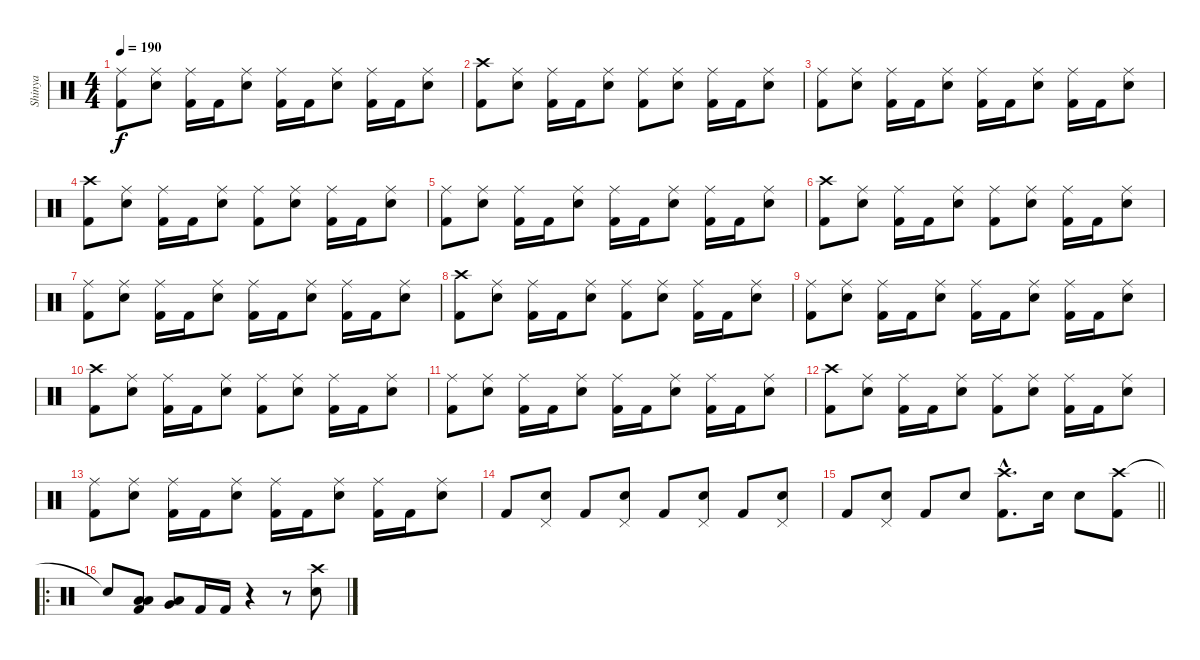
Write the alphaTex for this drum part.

\track ("Shinya" "Shinya") {instrument percussion}
\staff {score}
\articulation defaults
\ts (4 4)
\tempo 190
\clef neutral
\ks c
("Ride (middle)" "Kick (hit) 2").8{dy f} ("Ride (middle)" "Electric Snare (hit)").8 ("Ride (middle)" "Kick (hit) 2").16 "Kick (hit) 2".16 ("Ride (middle)" "Electric Snare (hit)").8 ("Ride (middle)" "Kick (hit) 2").16 "Kick (hit) 2".16 ("Ride (middle)" "Electric Snare (hit)").8 ("Ride (middle)" "Kick (hit) 2").16 "Kick (hit) 2".16 ("Ride (middle)" "Electric Snare (hit)").8 |
("Crash high (hit)" "Kick (hit) 2").8 ("Ride (middle)" "Electric Snare (hit)").8 ("Ride (middle)" "Kick (hit) 2").16 "Kick (hit) 2".16 ("Ride (middle)" "Electric Snare (hit)").8 ("Ride (middle)" "Kick (hit) 2").8 ("Ride (middle)" "Electric Snare (hit)").8 ("Ride (middle)" "Kick (hit) 2").16 "Kick (hit) 2".16 ("Ride (middle)" "Electric Snare (hit)").8 |
("Ride (middle)" "Kick (hit) 2").8 ("Ride (middle)" "Electric Snare (hit)").8 ("Ride (middle)" "Kick (hit) 2").16 "Kick (hit) 2".16 ("Ride (middle)" "Electric Snare (hit)").8 ("Ride (middle)" "Kick (hit) 2").16 "Kick (hit) 2".16 ("Ride (middle)" "Electric Snare (hit)").8 ("Ride (middle)" "Kick (hit) 2").16 "Kick (hit) 2".16 ("Ride (middle)" "Electric Snare (hit)").8 |
("Crash high (hit)" "Kick (hit) 2").8 ("Ride (middle)" "Electric Snare (hit)").8 ("Ride (middle)" "Kick (hit) 2").16 "Kick (hit) 2".16 ("Ride (middle)" "Electric Snare (hit)").8 ("Ride (middle)" "Kick (hit) 2").8 ("Ride (middle)" "Electric Snare (hit)").8 ("Ride (middle)" "Kick (hit) 2").16 "Kick (hit) 2".16 ("Ride (middle)" "Electric Snare (hit)").8 |
("Ride (middle)" "Kick (hit) 2").8 ("Ride (middle)" "Electric Snare (hit)").8 ("Ride (middle)" "Kick (hit) 2").16 "Kick (hit) 2".16 ("Ride (middle)" "Electric Snare (hit)").8 ("Ride (middle)" "Kick (hit) 2").16 "Kick (hit) 2".16 ("Ride (middle)" "Electric Snare (hit)").8 ("Ride (middle)" "Kick (hit) 2").16 "Kick (hit) 2".16 ("Ride (middle)" "Electric Snare (hit)").8 |
("Crash high (hit)" "Kick (hit) 2").8 ("Ride (middle)" "Electric Snare (hit)").8 ("Ride (middle)" "Kick (hit) 2").16 "Kick (hit) 2".16 ("Ride (middle)" "Electric Snare (hit)").8 ("Ride (middle)" "Kick (hit) 2").8 ("Ride (middle)" "Electric Snare (hit)").8 ("Ride (middle)" "Kick (hit) 2").16 "Kick (hit) 2".16 ("Ride (middle)" "Electric Snare (hit)").8 |
("Ride (middle)" "Kick (hit) 2").8 ("Ride (middle)" "Electric Snare (hit)").8 ("Ride (middle)" "Kick (hit) 2").16 "Kick (hit) 2".16 ("Ride (middle)" "Electric Snare (hit)").8 ("Ride (middle)" "Kick (hit) 2").16 "Kick (hit) 2".16 ("Ride (middle)" "Electric Snare (hit)").8 ("Ride (middle)" "Kick (hit) 2").16 "Kick (hit) 2".16 ("Ride (middle)" "Electric Snare (hit)").8 |
("Crash high (hit)" "Kick (hit) 2").8 ("Ride (middle)" "Electric Snare (hit)").8 ("Ride (middle)" "Kick (hit) 2").16 "Kick (hit) 2".16 ("Ride (middle)" "Electric Snare (hit)").8 ("Ride (middle)" "Kick (hit) 2").8 ("Ride (middle)" "Electric Snare (hit)").8 ("Ride (middle)" "Kick (hit) 2").16 "Kick (hit) 2".16 ("Ride (middle)" "Electric Snare (hit)").8 |
("Ride (middle)" "Kick (hit) 2").8 ("Ride (middle)" "Electric Snare (hit)").8 ("Ride (middle)" "Kick (hit) 2").16 "Kick (hit) 2".16 ("Ride (middle)" "Electric Snare (hit)").8 ("Ride (middle)" "Kick (hit) 2").16 "Kick (hit) 2".16 ("Ride (middle)" "Electric Snare (hit)").8 ("Ride (middle)" "Kick (hit) 2").16 "Kick (hit) 2".16 ("Ride (middle)" "Electric Snare (hit)").8 |
("Crash high (hit)" "Kick (hit) 2").8 ("Ride (middle)" "Electric Snare (hit)").8 ("Ride (middle)" "Kick (hit) 2").16 "Kick (hit) 2".16 ("Ride (middle)" "Electric Snare (hit)").8 ("Ride (middle)" "Kick (hit) 2").8 ("Ride (middle)" "Electric Snare (hit)").8 ("Ride (middle)" "Kick (hit) 2").16 "Kick (hit) 2".16 ("Ride (middle)" "Electric Snare (hit)").8 |
("Ride (middle)" "Kick (hit) 2").8 ("Ride (middle)" "Electric Snare (hit)").8 ("Ride (middle)" "Kick (hit) 2").16 "Kick (hit) 2".16 ("Ride (middle)" "Electric Snare (hit)").8 ("Ride (middle)" "Kick (hit) 2").16 "Kick (hit) 2".16 ("Ride (middle)" "Electric Snare (hit)").8 ("Ride (middle)" "Kick (hit) 2").16 "Kick (hit) 2".16 ("Ride (middle)" "Electric Snare (hit)").8 |
("Crash high (hit)" "Kick (hit) 2").8 ("Ride (middle)" "Electric Snare (hit)").8 ("Ride (middle)" "Kick (hit) 2").16 "Kick (hit) 2".16 ("Ride (middle)" "Electric Snare (hit)").8 ("Ride (middle)" "Kick (hit) 2").8 ("Ride (middle)" "Electric Snare (hit)").8 ("Ride (middle)" "Kick (hit) 2").16 "Kick (hit) 2".16 ("Ride (middle)" "Electric Snare (hit)").8 |
("Ride (middle)" "Kick (hit) 2").8 ("Ride (middle)" "Electric Snare (hit)").8 ("Ride (middle)" "Kick (hit) 2").16 "Kick (hit) 2".16 ("Ride (middle)" "Electric Snare (hit)").8 ("Ride (middle)" "Kick (hit) 2").16 "Kick (hit) 2".16 ("Ride (middle)" "Electric Snare (hit)").8 ("Ride (middle)" "Kick (hit) 2").16 "Kick (hit) 2".16 ("Ride (middle)" "Electric Snare (hit)").8 |
"Kick (hit) 2".8 ("Pedal Hi-Hat (hit)" "Electric Snare (hit)").8 "Kick (hit) 2".8 ("Pedal Hi-Hat (hit)" "Electric Snare (hit)").8 "Kick (hit) 2".8 ("Pedal Hi-Hat (hit)" "Electric Snare (hit)").8 "Kick (hit) 2".8 ("Pedal Hi-Hat (hit)" "Electric Snare (hit)").8 |
\barLineRight lightlight "Kick (hit) 2".8
("Pedal Hi-Hat (hit)" "Electric Snare (hit)").8 "Kick (hit) 2".8 "Electric Snare (hit)".8 ("Crash high (hit)"{hac} "Kick (hit) 2"{hac}).8{d} "Electric Snare (hit)".16 "Electric Snare (hit)".8 ("Crash high (hit)" "Kick (hit) 2").8 |
\ro "Snare (hit)"{t}.8
("Low Tom (hit)" "Low Floor Tom (hit)" "Kick (hit) 2").8 ("Very Low Tom (hit)" "Low Floor Tom (hit)").8 "Kick (hit) 2".16 "Kick (hit) 2".16 r.4 r.8 ("Crash high (hit)" "Electric Snare (hit)").8
